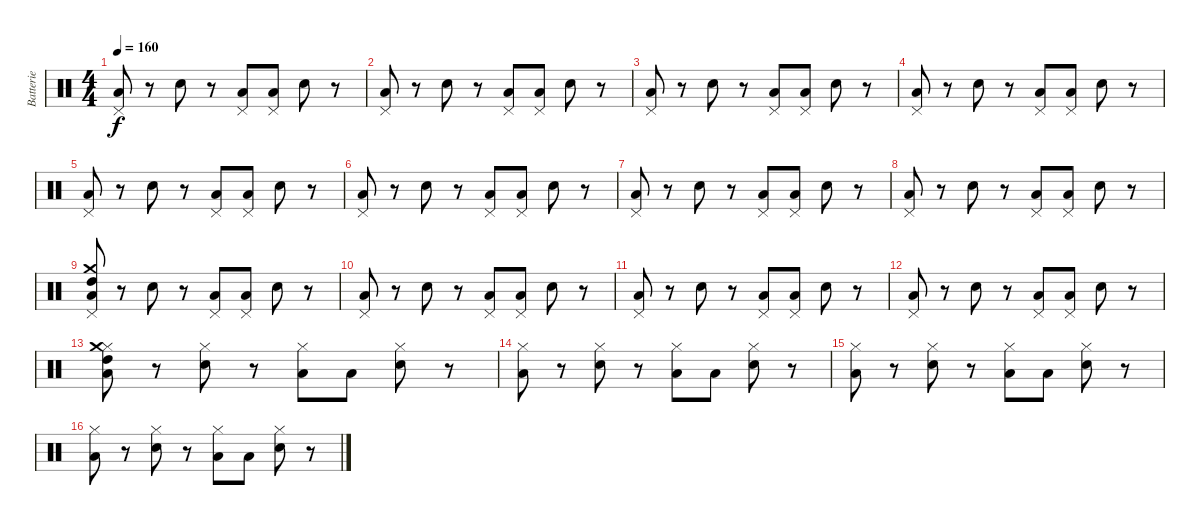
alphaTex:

\track ("Batterie" "Batterie") {instrument percussion}
\staff {score}
\articulation defaults
\ts (4 4)
\tempo 160
\clef neutral
\ks c
("Pedal Hi-Hat (hit)" "Low Floor Tom (hit)").8{dy f} r.8 "Electric Snare (hit)".8 r.8 ("Pedal Hi-Hat (hit)" "Low Floor Tom (hit)").8 ("Pedal Hi-Hat (hit)" "Low Floor Tom (hit)").8 "Electric Snare (hit)".8 r.8 |
("Pedal Hi-Hat (hit)" "Low Floor Tom (hit)").8 r.8 "Electric Snare (hit)".8 r.8 ("Pedal Hi-Hat (hit)" "Low Floor Tom (hit)").8 ("Pedal Hi-Hat (hit)" "Low Floor Tom (hit)").8 "Electric Snare (hit)".8 r.8 |
("Pedal Hi-Hat (hit)" "Low Floor Tom (hit)").8 r.8 "Electric Snare (hit)".8 r.8 ("Pedal Hi-Hat (hit)" "Low Floor Tom (hit)").8 ("Pedal Hi-Hat (hit)" "Low Floor Tom (hit)").8 "Electric Snare (hit)".8 r.8 |
("Pedal Hi-Hat (hit)" "Low Floor Tom (hit)").8 r.8 "Electric Snare (hit)".8 r.8 ("Pedal Hi-Hat (hit)" "Low Floor Tom (hit)").8 ("Pedal Hi-Hat (hit)" "Low Floor Tom (hit)").8 "Electric Snare (hit)".8 r.8 |
("Pedal Hi-Hat (hit)" "Low Floor Tom (hit)").8 r.8 "Electric Snare (hit)".8 r.8 ("Pedal Hi-Hat (hit)" "Low Floor Tom (hit)").8 ("Pedal Hi-Hat (hit)" "Low Floor Tom (hit)").8 "Electric Snare (hit)".8 r.8 |
("Pedal Hi-Hat (hit)" "Low Floor Tom (hit)").8 r.8 "Electric Snare (hit)".8 r.8 ("Pedal Hi-Hat (hit)" "Low Floor Tom (hit)").8 ("Pedal Hi-Hat (hit)" "Low Floor Tom (hit)").8 "Electric Snare (hit)".8 r.8 |
("Pedal Hi-Hat (hit)" "Low Floor Tom (hit)").8 r.8 "Electric Snare (hit)".8 r.8 ("Pedal Hi-Hat (hit)" "Low Floor Tom (hit)").8 ("Pedal Hi-Hat (hit)" "Low Floor Tom (hit)").8 "Electric Snare (hit)".8 r.8 |
("Pedal Hi-Hat (hit)" "Low Floor Tom (hit)").8 r.8 "Electric Snare (hit)".8 r.8 ("Pedal Hi-Hat (hit)" "Low Floor Tom (hit)").8 ("Pedal Hi-Hat (hit)" "Low Floor Tom (hit)").8 "Electric Snare (hit)".8 r.8 |
("Pedal Hi-Hat (hit)" "Low Floor Tom (hit)" "Crash medium (hit)" "High Tom (hit)").8 r.8 "Electric Snare (hit)".8 r.8 ("Pedal Hi-Hat (hit)" "Low Floor Tom (hit)").8 ("Pedal Hi-Hat (hit)" "Low Floor Tom (hit)").8 "Electric Snare (hit)".8 r.8 |
("Pedal Hi-Hat (hit)" "Low Floor Tom (hit)").8 r.8 "Electric Snare (hit)".8 r.8 ("Pedal Hi-Hat (hit)" "Low Floor Tom (hit)").8 ("Pedal Hi-Hat (hit)" "Low Floor Tom (hit)").8 "Electric Snare (hit)".8 r.8 |
("Pedal Hi-Hat (hit)" "Low Floor Tom (hit)").8 r.8 "Electric Snare (hit)".8 r.8 ("Pedal Hi-Hat (hit)" "Low Floor Tom (hit)").8 ("Pedal Hi-Hat (hit)" "Low Floor Tom (hit)").8 "Electric Snare (hit)".8 r.8 |
("Pedal Hi-Hat (hit)" "Low Floor Tom (hit)").8 r.8 "Electric Snare (hit)".8 r.8 ("Pedal Hi-Hat (hit)" "Low Floor Tom (hit)").8 ("Pedal Hi-Hat (hit)" "Low Floor Tom (hit)").8 "Electric Snare (hit)".8 r.8 |
("Hi-Hat (closed)" "Low Floor Tom (hit)" "Crash medium (hit)" "High Tom (hit)").8 r.8 ("Hi-Hat (closed)" "Electric Snare (hit)").8 r.8 ("Hi-Hat (closed)" "Low Floor Tom (hit)").8 "Low Floor Tom (hit)".8 ("Hi-Hat (closed)" "Electric Snare (hit)").8 r.8 |
("Hi-Hat (closed)" "Low Floor Tom (hit)").8 r.8 ("Hi-Hat (closed)" "Electric Snare (hit)").8 r.8 ("Hi-Hat (closed)" "Low Floor Tom (hit)").8 "Low Floor Tom (hit)".8 ("Hi-Hat (closed)" "Electric Snare (hit)").8 r.8 |
("Hi-Hat (closed)" "Low Floor Tom (hit)").8 r.8 ("Hi-Hat (closed)" "Electric Snare (hit)").8 r.8 ("Hi-Hat (closed)" "Low Floor Tom (hit)").8 "Low Floor Tom (hit)".8 ("Hi-Hat (closed)" "Electric Snare (hit)").8 r.8 |
("Hi-Hat (closed)" "Low Floor Tom (hit)").8 r.8 ("Hi-Hat (closed)" "Electric Snare (hit)").8 r.8 ("Hi-Hat (closed)" "Low Floor Tom (hit)").8 "Low Floor Tom (hit)".8 ("Hi-Hat (closed)" "Electric Snare (hit)").8 r.8
